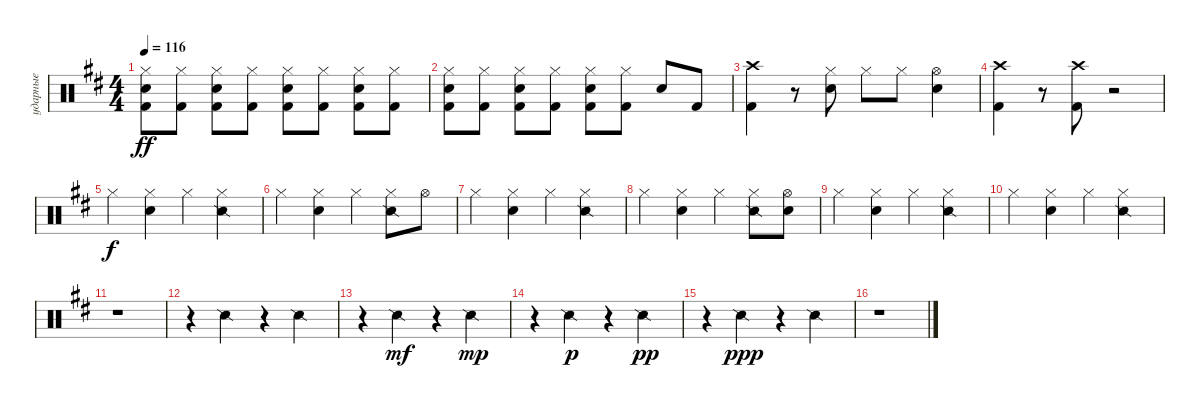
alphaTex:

\track ("ударные" "ударные") {instrument percussion}
\staff {score}
\articulation defaults
\ts (4 4)
\tempo 116
\clef neutral
\ks d
("Hi-Hat (closed)" "Snare (hit) 2" "Kick (hit) 2").8{dy ff} ("Hi-Hat (closed)" "Kick (hit) 2").8 ("Hi-Hat (closed)" "Snare (hit) 2" "Kick (hit) 2").8 ("Hi-Hat (closed)" "Kick (hit) 2").8 ("Hi-Hat (closed)" "Snare (hit) 2" "Kick (hit) 2").8 ("Hi-Hat (closed)" "Kick (hit) 2").8 ("Hi-Hat (closed)" "Snare (hit) 2" "Kick (hit) 2").8 ("Hi-Hat (closed)" "Kick (hit) 2").8 |
("Hi-Hat (closed)" "Snare (hit) 2" "Kick (hit) 2").8 ("Hi-Hat (closed)" "Kick (hit) 2").8 ("Hi-Hat (closed)" "Snare (hit) 2" "Kick (hit) 2").8 ("Hi-Hat (closed)" "Kick (hit) 2").8 ("Hi-Hat (closed)" "Snare (hit) 2" "Kick (hit) 2").8 ("Hi-Hat (closed)" "Kick (hit) 2").8 "Snare (hit) 2".8 "Kick (hit) 2".8 |
("Crash high (hit)" "Kick (hit) 2").4 r.8 ("Hi-Hat (closed)" "Snare (hit) 2").8 "Hi-Hat (closed)".8 "Hi-Hat (closed)".8 ("Hi-Hat (open)" "Snare (hit) 2").4 |
("Crash high (hit)" "Kick (hit) 2").4 r.8 ("Crash high (hit)" "Kick (hit) 2").8 r.2 |
"Hi-Hat (closed)".4{dy f} ("Hi-Hat (closed)" "Hand Clap (hit)").4 "Hi-Hat (closed)".4 ("Hi-Hat (closed)" "Snare (side stick) 2").4 |
"Hi-Hat (closed)".4 ("Hi-Hat (closed)" "Hand Clap (hit)").4 "Hi-Hat (closed)".4 ("Hi-Hat (closed)" "Snare (side stick) 2").8 "Hi-Hat (open)".8 |
"Hi-Hat (closed)".4 ("Hi-Hat (closed)" "Hand Clap (hit)").4 "Hi-Hat (closed)".4 ("Hi-Hat (closed)" "Snare (side stick) 2").4 |
"Hi-Hat (closed)".4 ("Hi-Hat (closed)" "Hand Clap (hit)").4 "Hi-Hat (closed)".4 ("Hi-Hat (closed)" "Snare (side stick) 2").8 ("Hi-Hat (open)" "Hand Clap (hit)").8 |
"Hi-Hat (closed)".4 ("Hi-Hat (closed)" "Hand Clap (hit)").4 "Hi-Hat (closed)".4 ("Hi-Hat (closed)" "Snare (side stick) 2").4 |
"Hi-Hat (closed)".4 ("Hi-Hat (closed)" "Hand Clap (hit)").4 "Hi-Hat (closed)".4 ("Hi-Hat (closed)" "Snare (side stick) 2").4 |
r.1 |
r.4 "Snare (side stick) 2".4 r.4 "Snare (side stick) 2".4 |
r.4 "Snare (side stick) 2".4{dy mf} r.4 "Snare (side stick) 2".4{dy mp} |
r.4 "Snare (side stick) 2".4{dy p} r.4 "Snare (side stick) 2".4{dy pp} |
r.4 "Snare (side stick) 2".4{dy ppp} r.4 "Snare (side stick) 2".4 |
r.1
